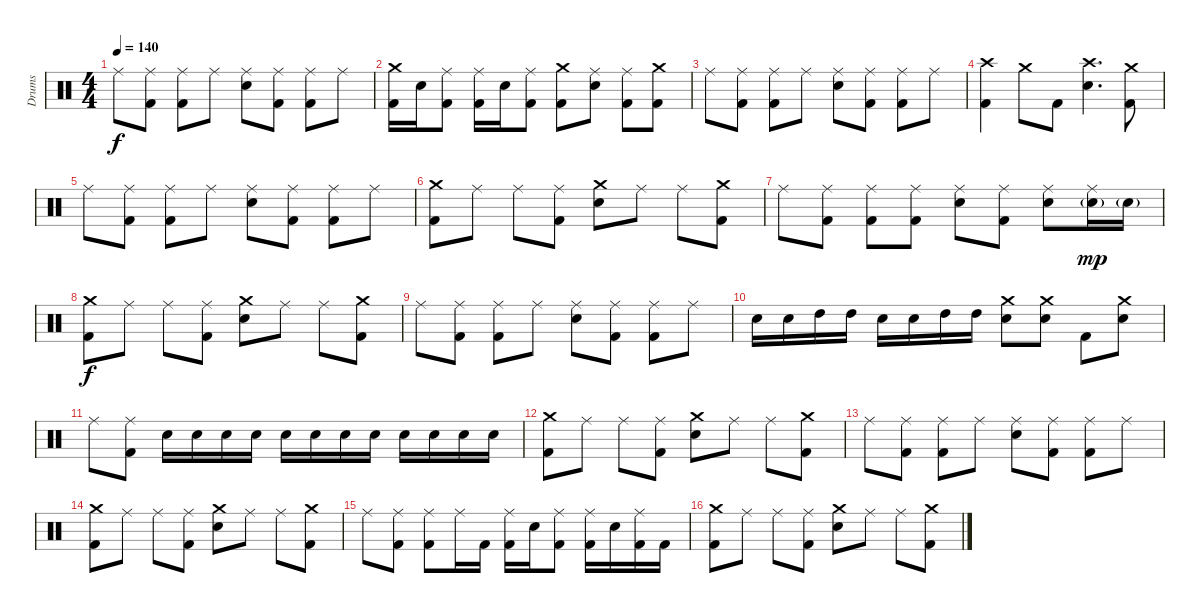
\track ("Drums" "Drums") {instrument percussion}
\staff {score}
\articulation defaults
\ts (4 4)
\tempo 140
\clef neutral
\ks c "Ride (middle)".8{dy f}
("Ride (middle)" "Kick (hit) 2").8 ("Ride (middle)" "Kick (hit) 2").8 "Ride (middle)".8 ("Ride (middle)" "Electric Snare (hit)").8 ("Ride (middle)" "Kick (hit) 2").8 ("Ride (middle)" "Kick (hit) 2").8 "Ride (middle)".8 |
("Crash medium (hit)" "Kick (hit) 2").16 "Electric Snare (hit)".16 ("Ride (middle)" "Kick (hit) 2").8 ("Ride (middle)" "Kick (hit) 2").16 "Electric Snare (hit)".16 ("Ride (middle)" "Kick (hit) 2").8 ("Crash medium (hit)" "Kick (hit) 2").8 ("Ride (middle)" "Electric Snare (hit)").8 ("Ride (middle)" "Kick (hit) 2").8 ("Crash medium (hit)" "Kick (hit) 2").8 |
"Ride (middle)".8 ("Ride (middle)" "Kick (hit) 2").8 ("Ride (middle)" "Kick (hit) 2").8 "Ride (middle)".8 ("Ride (middle)" "Electric Snare (hit)").8 ("Ride (middle)" "Kick (hit) 2").8 ("Ride (middle)" "Kick (hit) 2").8 "Ride (middle)".8 |
("Crash high (hit)" "Kick (hit) 2").4 "Crash medium (hit)".8 "Kick (hit) 2".8 ("Crash high (hit)" "Electric Snare (hit)").4{d} ("Crash medium (hit)" "Kick (hit) 2").8 |
"Ride (middle)".8 ("Ride (middle)" "Kick (hit) 2").8 ("Ride (middle)" "Kick (hit) 2").8 "Ride (middle)".8 ("Ride (middle)" "Electric Snare (hit)").8 ("Ride (middle)" "Kick (hit) 2").8 ("Ride (middle)" "Kick (hit) 2").8 "Ride (middle)".8 |
("Crash medium (hit)" "Kick (hit) 2").8 "Ride (middle)".8 "Ride (middle)".8 ("Ride (middle)" "Kick (hit) 2").8 ("Crash medium (hit)" "Electric Snare (hit)").8 "Ride (middle)".8 "Ride (middle)".8 ("Crash medium (hit)" "Kick (hit) 2").8 |
"Ride (middle)".8 ("Ride (middle)" "Kick (hit) 2").8 ("Ride (middle)" "Kick (hit) 2").8 ("Ride (middle)" "Kick (hit) 2").8 ("Ride (middle)" "Electric Snare (hit)").8 ("Ride (middle)" "Kick (hit) 2").8 ("Ride (middle)" "Electric Snare (hit)").8 ("Ride (middle)" "Electric Snare (hit)"{g}).16{dy mp} "Electric Snare (hit)"{g}.16 |
("Crash medium (hit)" "Kick (hit) 2").8{dy f} "Ride (middle)".8 "Ride (middle)".8 ("Ride (middle)" "Kick (hit) 2").8 ("Crash medium (hit)" "Electric Snare (hit)").8 "Ride (middle)".8 "Ride (middle)".8 ("Crash medium (hit)" "Kick (hit) 2").8 |
"Ride (middle)".8 ("Ride (middle)" "Kick (hit) 2").8 ("Ride (middle)" "Kick (hit) 2").8 "Ride (middle)".8 ("Ride (middle)" "Electric Snare (hit)").8 ("Ride (middle)" "Kick (hit) 2").8 ("Ride (middle)" "Kick (hit) 2").8 "Ride (middle)".8 |
"Electric Snare (hit)".16 "Electric Snare (hit)".16 "High Tom (hit)".16 "High Tom (hit)".16 "Electric Snare (hit)".16 "Electric Snare (hit)".16 "High Tom (hit)".16 "High Tom (hit)".16 ("Crash medium (hit)" "Electric Snare (hit)").8 ("Crash medium (hit)" "Electric Snare (hit)").8 "Kick (hit) 2".8 ("Crash medium (hit)" "Electric Snare (hit)").8 |
"Ride (middle)".8 ("Ride (middle)" "Kick (hit) 2").8 "Electric Snare (hit)".16 "Electric Snare (hit)".16 "Electric Snare (hit)".16 "Electric Snare (hit)".16 "Electric Snare (hit)".16 "Electric Snare (hit)".16 "Electric Snare (hit)".16 "Electric Snare (hit)".16 "Electric Snare (hit)".16 "Electric Snare (hit)".16 "Electric Snare (hit)".16 "Electric Snare (hit)".16 |
("Crash medium (hit)" "Kick (hit) 2").8 "Ride (middle)".8 "Ride (middle)".8 ("Ride (middle)" "Kick (hit) 2").8 ("Crash medium (hit)" "Electric Snare (hit)").8 "Ride (middle)".8 "Ride (middle)".8 ("Crash medium (hit)" "Kick (hit) 2").8 |
"Ride (middle)".8 ("Ride (middle)" "Kick (hit) 2").8 ("Ride (middle)" "Kick (hit) 2").8 "Ride (middle)".8 ("Ride (middle)" "Electric Snare (hit)").8 ("Ride (middle)" "Kick (hit) 2").8 ("Ride (middle)" "Kick (hit) 2").8 "Ride (middle)".8 |
("Crash medium (hit)" "Kick (hit) 2").8 "Ride (middle)".8 "Ride (middle)".8 ("Ride (middle)" "Kick (hit) 2").8 ("Crash medium (hit)" "Electric Snare (hit)").8 "Ride (middle)".8 "Ride (middle)".8 ("Crash medium (hit)" "Kick (hit) 2").8 |
"Ride (middle)".8 ("Ride (middle)" "Kick (hit) 2").8 ("Ride (middle)" "Kick (hit) 2").8 "Ride (middle)".16 "Kick (hit) 2".16 ("Ride (middle)" "Kick (hit) 2").16 "Electric Snare (hit)".16 ("Ride (middle)" "Kick (hit) 2").8 ("Ride (middle)" "Kick (hit) 2").16 "Electric Snare (hit)".16 ("Ride (middle)" "Kick (hit) 2").16 "Kick (hit) 2".16 |
("Crash medium (hit)" "Kick (hit) 2").8 "Ride (middle)".8 "Ride (middle)".8 ("Ride (middle)" "Kick (hit) 2").8 ("Crash medium (hit)" "Electric Snare (hit)").8 "Ride (middle)".8 "Ride (middle)".8 ("Crash medium (hit)" "Kick (hit) 2").8
